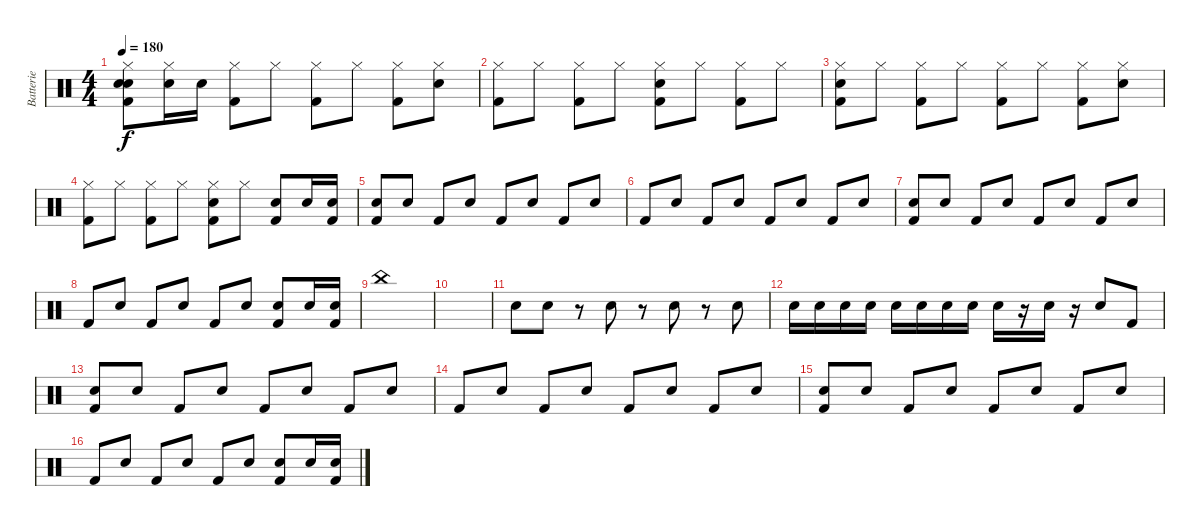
\track ("Batterie" "Batterie") {instrument percussion}
\staff {score}
\articulation defaults
\ts (4 4)
\tempo 180
\clef neutral
\ks c
("Metronome (bell)" "Hi-Hat (closed)" "Electric Snare (hit)" "Kick (hit) 2").8{dy f} ("Hi-Hat (closed)" "Electric Snare (hit)").16 "Electric Snare (hit)".16 ("Hi-Hat (closed)" "Kick (hit) 2").8 "Hi-Hat (closed)".8 ("Hi-Hat (closed)" "Kick (hit) 2").8 "Hi-Hat (closed)".8 ("Hi-Hat (closed)" "Kick (hit) 2").8 ("Hi-Hat (closed)" "Electric Snare (hit)").8 |
("Hi-Hat (closed)" "Kick (hit) 2").8 "Hi-Hat (closed)".8 ("Hi-Hat (closed)" "Kick (hit) 2").8 "Hi-Hat (closed)".8 ("Hi-Hat (closed)" "Electric Snare (hit)" "Kick (hit) 2").8 "Hi-Hat (closed)".8 ("Hi-Hat (closed)" "Kick (hit) 2").8 "Hi-Hat (closed)".8 |
("Metronome (bell)" "Hi-Hat (closed)" "Kick (hit) 2").8 "Hi-Hat (closed)".8 ("Hi-Hat (closed)" "Kick (hit) 2").8 "Hi-Hat (closed)".8 ("Hi-Hat (closed)" "Kick (hit) 2").8 "Hi-Hat (closed)".8 ("Hi-Hat (closed)" "Kick (hit) 2").8 ("Hi-Hat (closed)" "Electric Snare (hit)").8 |
("Hi-Hat (closed)" "Kick (hit) 2").8 "Hi-Hat (closed)".8 ("Hi-Hat (closed)" "Kick (hit) 2").8 "Hi-Hat (closed)".8 ("Hi-Hat (closed)" "Electric Snare (hit)" "Kick (hit) 2").8 "Hi-Hat (closed)".8 ("Electric Snare (hit)" "Kick (hit) 2").8 "Electric Snare (hit)".16 ("Electric Snare (hit)" "Kick (hit) 2").16 |
("Metronome (bell)" "Kick (hit) 2").8 "Electric Snare (hit)".8 "Kick (hit) 2".8 "Electric Snare (hit)".8 "Kick (hit) 2".8 "Electric Snare (hit)".8 "Kick (hit) 2".8 "Electric Snare (hit)".8 |
"Kick (hit) 2".8 "Electric Snare (hit)".8 "Kick (hit) 2".8 "Electric Snare (hit)".8 "Kick (hit) 2".8 "Electric Snare (hit)".8 "Kick (hit) 2".8 "Electric Snare (hit)".8 |
("Metronome (bell)" "Kick (hit) 2").8 "Electric Snare (hit)".8 "Kick (hit) 2".8 "Electric Snare (hit)".8 "Kick (hit) 2".8 "Electric Snare (hit)".8 "Kick (hit) 2".8 "Electric Snare (hit)".8 |
"Kick (hit) 2".8 "Electric Snare (hit)".8 "Kick (hit) 2".8 "Electric Snare (hit)".8 "Kick (hit) 2".8 "Electric Snare (hit)".8 ("Electric Snare (hit)" "Kick (hit) 2").8 "Electric Snare (hit)".16 ("Electric Snare (hit)" "Kick (hit) 2").16 |
"China (hit)".1 |
|
"Metronome (bell)".8 "Metronome (bell)".8 r.8 "Metronome (bell)".8 r.8 "Metronome (bell)".8 r.8 "Metronome (bell)".8 |
"Electric Snare (hit)".16 "Electric Snare (hit)".16 "Electric Snare (hit)".16 "Electric Snare (hit)".16 "Electric Snare (hit)".16 "Electric Snare (hit)".16 "Electric Snare (hit)".16 "Electric Snare (hit)".16 "Electric Snare (hit)".16 r.16 "Electric Snare (hit)".16 r.16 "Electric Snare (hit)".8 "Kick (hit) 2".8 |
("Metronome (bell)" "Kick (hit) 2").8 "Electric Snare (hit)".8 "Kick (hit) 2".8 "Electric Snare (hit)".8 "Kick (hit) 2".8 "Electric Snare (hit)".8 "Kick (hit) 2".8 "Electric Snare (hit)".8 |
"Kick (hit) 2".8 "Electric Snare (hit)".8 "Kick (hit) 2".8 "Electric Snare (hit)".8 "Kick (hit) 2".8 "Electric Snare (hit)".8 "Kick (hit) 2".8 "Electric Snare (hit)".8 |
("Metronome (bell)" "Kick (hit) 2").8 "Electric Snare (hit)".8 "Kick (hit) 2".8 "Electric Snare (hit)".8 "Kick (hit) 2".8 "Electric Snare (hit)".8 "Kick (hit) 2".8 "Electric Snare (hit)".8 |
"Kick (hit) 2".8 "Electric Snare (hit)".8 "Kick (hit) 2".8 "Electric Snare (hit)".8 "Kick (hit) 2".8 "Electric Snare (hit)".8 ("Electric Snare (hit)" "Kick (hit) 2").8 "Electric Snare (hit)".16 ("Electric Snare (hit)" "Kick (hit) 2").16
